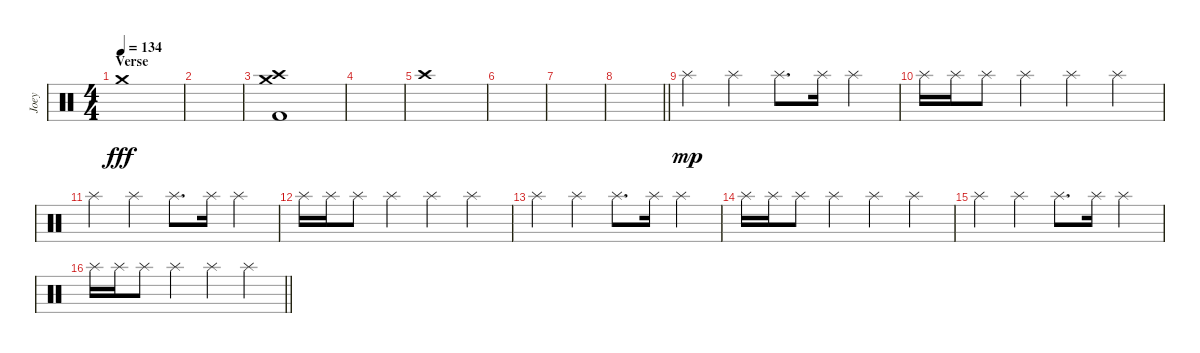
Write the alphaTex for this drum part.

\track ("Joey" "Joey") {instrument percussion}
\staff {score}
\articulation defaults
\ts (4 4)
\section ("" "Verse")
\tempo 134
\clef neutral
\ks c "Crash medium (hit)".1{dy fff}
|
|
("Crash high (hit)" "Crash medium (hit)" "Kick (hit) 2").1 |
|
"Crash high (hit)".1 |
|
|
\barLineRight lightlight
|
\section ("" "")
"Splash (hit)".4{dy mp} "Splash (hit)".4 "Splash (hit)".8{d} "Splash (hit)".16 "Splash (hit)".4 |
"Splash (hit)".16 "Splash (hit)".16 "Splash (hit)".8 "Splash (hit)".4 "Splash (hit)".4 "Splash (hit)".4 |
"Splash (hit)".4 "Splash (hit)".4 "Splash (hit)".8{d} "Splash (hit)".16 "Splash (hit)".4 |
"Splash (hit)".16 "Splash (hit)".16 "Splash (hit)".8 "Splash (hit)".4 "Splash (hit)".4 "Splash (hit)".4 |
"Splash (hit)".4 "Splash (hit)".4 "Splash (hit)".8{d} "Splash (hit)".16 "Splash (hit)".4 |
"Splash (hit)".16 "Splash (hit)".16 "Splash (hit)".8 "Splash (hit)".4 "Splash (hit)".4 "Splash (hit)".4 |
"Splash (hit)".4 "Splash (hit)".4 "Splash (hit)".8{d} "Splash (hit)".16 "Splash (hit)".4 |
\barLineRight lightlight "Splash (hit)".16 "Splash (hit)".16 "Splash (hit)".8 "Splash (hit)".4 "Splash (hit)".4 "Splash (hit)".4
